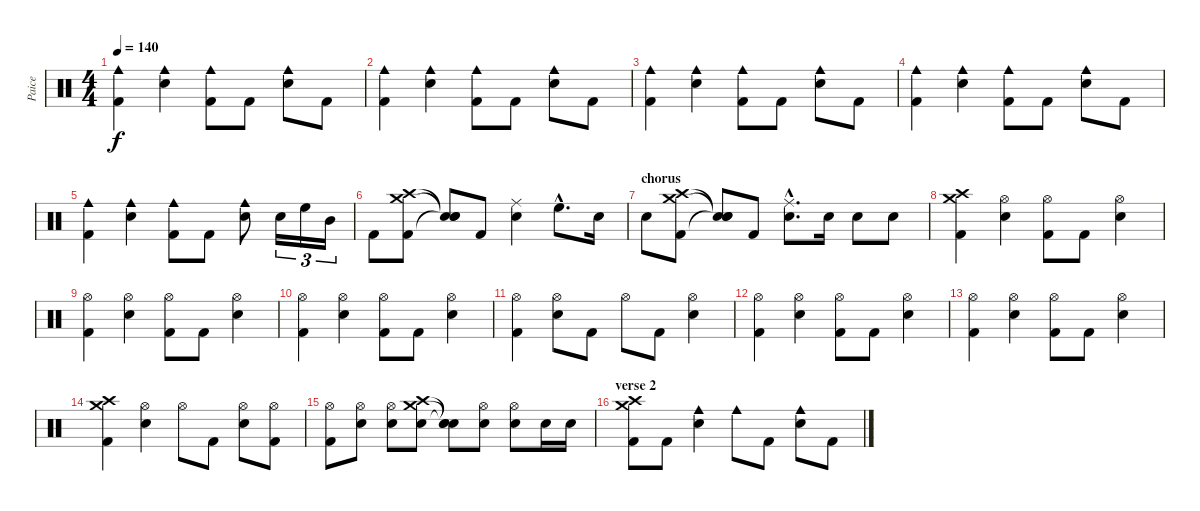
\track ("Paice" "Paice") {instrument percussion}
\staff {score}
\articulation defaults
\ts (4 4)
\tempo 140
\clef neutral
\ks c
("Cowbell medium (hit)" "Kick (hit) 2").4{dy f} ("Cowbell medium (hit)" "Electric Snare (hit)").4 ("Cowbell medium (hit)" "Kick (hit) 2").8 "Kick (hit) 2".8 ("Cowbell medium (hit)" "Electric Snare (hit)").8 "Kick (hit) 2".8 |
("Cowbell medium (hit)" "Kick (hit) 2").4 ("Cowbell medium (hit)" "Electric Snare (hit)").4 ("Cowbell medium (hit)" "Kick (hit) 2").8 "Kick (hit) 2".8 ("Cowbell medium (hit)" "Electric Snare (hit)").8 "Kick (hit) 2".8 |
("Cowbell medium (hit)" "Kick (hit) 2").4 ("Cowbell medium (hit)" "Electric Snare (hit)").4 ("Cowbell medium (hit)" "Kick (hit) 2").8 "Kick (hit) 2".8 ("Cowbell medium (hit)" "Electric Snare (hit)").8 "Kick (hit) 2".8 |
("Cowbell medium (hit)" "Kick (hit) 2").4 ("Cowbell medium (hit)" "Electric Snare (hit)").4 ("Cowbell medium (hit)" "Kick (hit) 2").8 "Kick (hit) 2".8 ("Cowbell medium (hit)" "Electric Snare (hit)").8 "Kick (hit) 2".8 |
("Cowbell medium (hit)" "Kick (hit) 2").4 ("Cowbell medium (hit)" "Electric Snare (hit)").4 ("Cowbell medium (hit)" "Kick (hit) 2").8 "Kick (hit) 2".8 ("Cowbell medium (hit)" "Electric Snare (hit)").8 "Electric Snare (hit)".16{tu (3 2)} "High Floor Tom (hit)".16{tu (3 2)} "Mid Tom (hit)".16{tu (3 2)} |
"Kick (hit) 2".8 ("Crash high (hit)" "Crash medium (hit)" "Kick (hit) 2").8 ("Snare (hit)"{t} "Snare (hit)"{t} "Snare (hit)"{t}).8 "Kick (hit) 2".8 ("Ride (middle)" "Electric Snare (hit)").4 "High Floor Tom (hit)"{hac}.8{d} "Electric Snare (hit)".16 |
\section ("" "chorus")
"Electric Snare (hit)".8 ("Crash high (hit)" "Crash medium (hit)" "Kick (hit) 2").8 ("Snare (hit)"{t} "Snare (hit)"{t} "Snare (hit)"{t}).8 "Kick (hit) 2".8 ("Ride (middle)"{hac} "Electric Snare (hit)"{hac}).8{d} "Electric Snare (hit)".16 "Electric Snare (hit)".8 "Electric Snare (hit)".8 |
("Crash high (hit)" "Crash medium (hit)" "Kick (hit) 2").4 ("Hi-Hat (open)" "Electric Snare (hit)").4 ("Hi-Hat (open)" "Kick (hit) 2").8 "Kick (hit) 2".8 ("Hi-Hat (open)" "Electric Snare (hit)").4 |
("Hi-Hat (open)" "Kick (hit) 2").4 ("Hi-Hat (open)" "Electric Snare (hit)").4 ("Hi-Hat (open)" "Kick (hit) 2").8 "Kick (hit) 2".8 ("Hi-Hat (open)" "Electric Snare (hit)").4 |
("Hi-Hat (open)" "Kick (hit) 2").4 ("Hi-Hat (open)" "Electric Snare (hit)").4 ("Hi-Hat (open)" "Kick (hit) 2").8 "Kick (hit) 2".8 ("Hi-Hat (open)" "Electric Snare (hit)").4 |
("Hi-Hat (open)" "Kick (hit) 2").4 ("Hi-Hat (open)" "Electric Snare (hit)").8 "Kick (hit) 2".8 "Hi-Hat (open)".8 "Kick (hit) 2".8 ("Hi-Hat (open)" "Electric Snare (hit)").4 |
("Hi-Hat (open)" "Kick (hit) 2").4 ("Hi-Hat (open)" "Electric Snare (hit)").4 ("Hi-Hat (open)" "Kick (hit) 2").8 "Kick (hit) 2".8 ("Hi-Hat (open)" "Electric Snare (hit)").4 |
("Hi-Hat (open)" "Kick (hit) 2").4 ("Hi-Hat (open)" "Electric Snare (hit)").4 ("Hi-Hat (open)" "Kick (hit) 2").8 "Kick (hit) 2".8 ("Hi-Hat (open)" "Electric Snare (hit)").4 |
("Crash high (hit)" "Crash medium (hit)" "Kick (hit) 2").4 ("Hi-Hat (open)" "Electric Snare (hit)").4 "Hi-Hat (open)".8 "Kick (hit) 2".8 ("Hi-Hat (open)" "Electric Snare (hit)").8 ("Hi-Hat (open)" "Kick (hit) 2").8 |
("Hi-Hat (open)" "Kick (hit) 2").8 ("Hi-Hat (open)" "Electric Snare (hit)").8 ("Hi-Hat (open)" "Electric Snare (hit)").8 ("Crash high (hit)" "Crash medium (hit)" "Electric Snare (hit)").8 ("Snare (hit)"{t} "Snare (hit)"{t} "Snare (hit)"{t}).8 ("Hi-Hat (open)" "Electric Snare (hit)").8 ("Hi-Hat (open)" "Electric Snare (hit)").8 "Electric Snare (hit)".16 "Electric Snare (hit)".16 |
\section ("" "verse 2")
("Crash high (hit)" "Crash medium (hit)" "Kick (hit) 2").8 "Kick (hit) 2".8 ("Cowbell medium (hit)" "Electric Snare (hit)").4 "Cowbell medium (hit)".8 "Kick (hit) 2".8 ("Cowbell medium (hit)" "Electric Snare (hit)").8 "Kick (hit) 2".8
